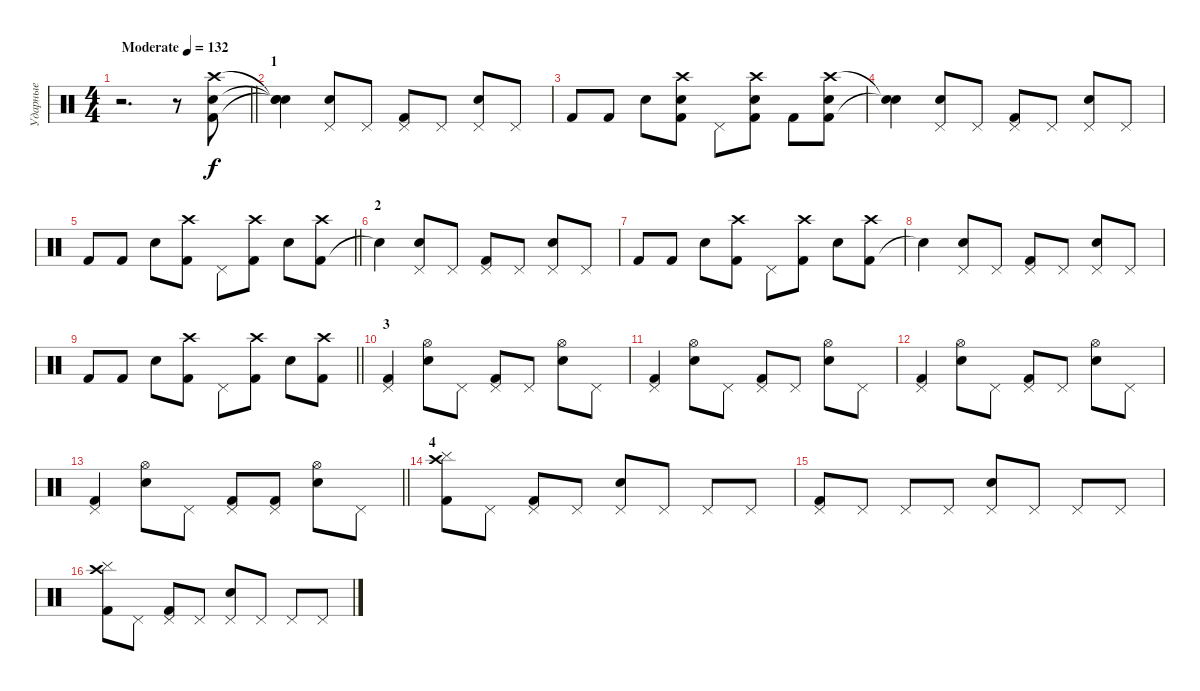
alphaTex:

\track ("Ударные" "Ударные") {instrument percussion}
\staff {score}
\articulation defaults
\ts (4 4)
\tempo (132 "Moderate")
\clef neutral
\barLineRight lightlight
\ks c
r.2{d dy f} r.8 ("Crash high (hit)" "Electric Snare (hit)" "Kick (hit) 2").8 |
\section ("" "1")
("Snare (hit)"{t} "Snare (hit)"{t} "Snare (hit)"{t}).4 ("Pedal Hi-Hat (hit)" "Electric Snare (hit)").8 "Pedal Hi-Hat (hit)".8 ("Pedal Hi-Hat (hit)" "Kick (hit) 2").8 "Pedal Hi-Hat (hit)".8 ("Pedal Hi-Hat (hit)" "Electric Snare (hit)").8 "Pedal Hi-Hat (hit)".8 |
"Kick (hit) 2".8 "Kick (hit) 2".8 "Electric Snare (hit)".8 ("Electric Snare (hit)" "Crash high (hit)" "Kick (hit) 2").8 "Pedal Hi-Hat (hit)".8 ("Electric Snare (hit)" "Crash high (hit)" "Kick (hit) 2").8 "Kick (hit) 2".8 ("Kick (hit) 2" "Crash high (hit)" "Electric Snare (hit)").8 |
("Snare (hit)"{t} "Snare (hit)"{t}).4 ("Pedal Hi-Hat (hit)" "Electric Snare (hit)").8 "Pedal Hi-Hat (hit)".8 ("Pedal Hi-Hat (hit)" "Kick (hit) 2").8 "Pedal Hi-Hat (hit)".8 ("Pedal Hi-Hat (hit)" "Electric Snare (hit)").8 "Pedal Hi-Hat (hit)".8 |
\barLineRight lightlight "Kick (hit) 2".8 "Kick (hit) 2".8 "Electric Snare (hit)".8
("Kick (hit) 2" "Crash high (hit)").8 "Pedal Hi-Hat (hit)".8 ("Kick (hit) 2" "Crash high (hit)").8 "Electric Snare (hit)".8 ("Kick (hit) 2" "Crash high (hit)").8 |
\section ("" "2")
"Snare (hit)"{t}.4 ("Pedal Hi-Hat (hit)" "Electric Snare (hit)").8 "Pedal Hi-Hat (hit)".8 ("Pedal Hi-Hat (hit)" "Kick (hit) 2").8 "Pedal Hi-Hat (hit)".8 ("Pedal Hi-Hat (hit)" "Electric Snare (hit)").8 "Pedal Hi-Hat (hit)".8 |
"Kick (hit) 2".8 "Kick (hit) 2".8 "Electric Snare (hit)".8 ("Kick (hit) 2" "Crash high (hit)").8 "Pedal Hi-Hat (hit)".8 ("Kick (hit) 2" "Crash high (hit)").8 "Electric Snare (hit)".8 ("Kick (hit) 2" "Crash high (hit)").8 |
"Snare (hit)"{t}.4 ("Pedal Hi-Hat (hit)" "Electric Snare (hit)").8 "Pedal Hi-Hat (hit)".8 ("Pedal Hi-Hat (hit)" "Kick (hit) 2").8 "Pedal Hi-Hat (hit)".8 ("Pedal Hi-Hat (hit)" "Electric Snare (hit)").8 "Pedal Hi-Hat (hit)".8 |
\barLineRight lightlight "Kick (hit) 2".8 "Kick (hit) 2".8 "Electric Snare (hit)".8
("Kick (hit) 2" "Crash high (hit)").8 "Pedal Hi-Hat (hit)".8 ("Kick (hit) 2" "Crash high (hit)").8 "Electric Snare (hit)".8 ("Kick (hit) 2" "Crash high (hit)").8 |
\section ("" "3")
("Pedal Hi-Hat (hit)" "Kick (hit) 2").4 ("Hi-Hat (open)" "Electric Snare (hit)").8 "Pedal Hi-Hat (hit)".8 ("Kick (hit) 2" "Pedal Hi-Hat (hit)").8 "Pedal Hi-Hat (hit)".8 ("Electric Snare (hit)" "Hi-Hat (open)").8 "Pedal Hi-Hat (hit)".8 |
("Pedal Hi-Hat (hit)" "Kick (hit) 2").4 ("Hi-Hat (open)" "Electric Snare (hit)").8 "Pedal Hi-Hat (hit)".8 ("Kick (hit) 2" "Pedal Hi-Hat (hit)").8 "Pedal Hi-Hat (hit)".8 ("Electric Snare (hit)" "Hi-Hat (open)").8 "Pedal Hi-Hat (hit)".8 |
("Pedal Hi-Hat (hit)" "Kick (hit) 2").4 ("Hi-Hat (open)" "Electric Snare (hit)").8 "Pedal Hi-Hat (hit)".8 ("Kick (hit) 2" "Pedal Hi-Hat (hit)").8 "Pedal Hi-Hat (hit)".8 ("Electric Snare (hit)" "Hi-Hat (open)").8 "Pedal Hi-Hat (hit)".8 |
\barLineRight lightlight
("Kick (hit) 2" "Pedal Hi-Hat (hit)").4 ("Hi-Hat (open)" "Electric Snare (hit)").8 "Pedal Hi-Hat (hit)".8 ("Kick (hit) 2" "Pedal Hi-Hat (hit)").8 ("Kick (hit) 2" "Pedal Hi-Hat (hit)").8 ("Electric Snare (hit)" "Hi-Hat (open)").8 "Pedal Hi-Hat (hit)".8 |
\section ("" "4")
("Kick (hit) 2" "Crash high (hit)" "Cymbal (hit)").8 "Pedal Hi-Hat (hit)".8 ("Pedal Hi-Hat (hit)" "Kick (hit) 2").8 "Pedal Hi-Hat (hit)".8 ("Pedal Hi-Hat (hit)" "Electric Snare (hit)").8 "Pedal Hi-Hat (hit)".8 "Pedal Hi-Hat (hit)".8 "Pedal Hi-Hat (hit)".8 |
("Pedal Hi-Hat (hit)" "Kick (hit) 2").8 "Pedal Hi-Hat (hit)".8 "Pedal Hi-Hat (hit)".8 "Pedal Hi-Hat (hit)".8 ("Pedal Hi-Hat (hit)" "Electric Snare (hit)").8 "Pedal Hi-Hat (hit)".8 "Pedal Hi-Hat (hit)".8 "Pedal Hi-Hat (hit)".8 |
("Kick (hit) 2" "Crash high (hit)" "Cymbal (hit)").8 "Pedal Hi-Hat (hit)".8 ("Pedal Hi-Hat (hit)" "Kick (hit) 2").8 "Pedal Hi-Hat (hit)".8 ("Pedal Hi-Hat (hit)" "Electric Snare (hit)").8 "Pedal Hi-Hat (hit)".8 "Pedal Hi-Hat (hit)".8 "Pedal Hi-Hat (hit)".8
